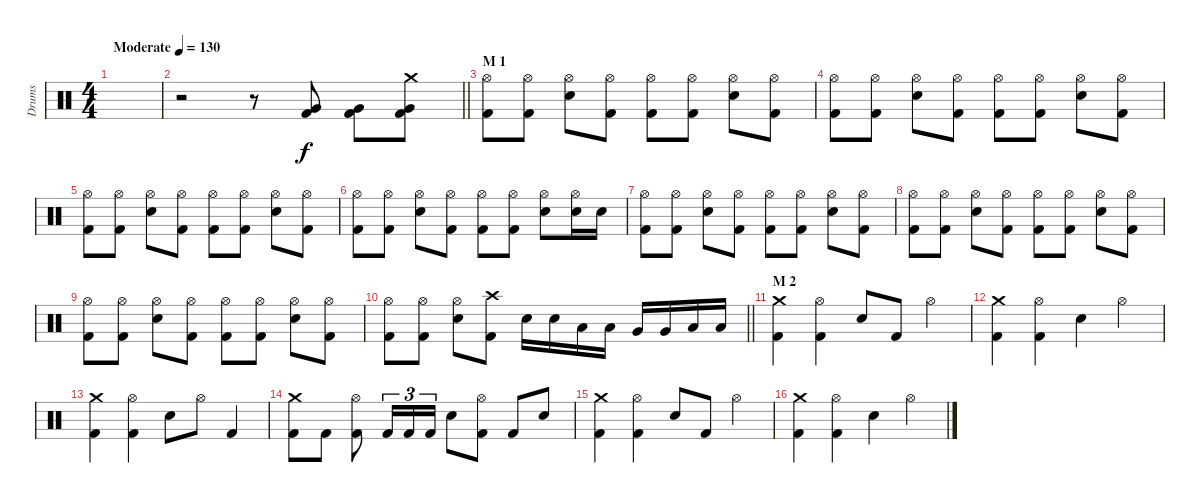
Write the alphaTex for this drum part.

\track ("Drums" "Drums") {instrument percussion}
\staff
\articulation defaults
\ts (4 4)
\tempo (130 "Moderate")
\clef neutral
\ks c
|
\barLineRight lightlight
r.2 r.8 ("Very Low Tom (hit)" "Kick (hit) 2").8 ("Very Low Tom (hit)" "Kick (hit) 2").8 ("Very Low Tom (hit)" "Crash medium (hit)" "Kick (hit) 2").8 |
\section ("" "M 1")
("Hi-Hat (open)" "Kick (hit) 2").8 ("Hi-Hat (open)" "Kick (hit) 2").8 ("Hi-Hat (open)" "Electric Snare (hit)").8 ("Hi-Hat (open)" "Kick (hit) 2").8 ("Hi-Hat (open)" "Kick (hit) 2").8 ("Hi-Hat (open)" "Kick (hit) 2").8 ("Hi-Hat (open)" "Electric Snare (hit)").8 ("Hi-Hat (open)" "Kick (hit) 2").8 |
("Hi-Hat (open)" "Kick (hit) 2").8 ("Hi-Hat (open)" "Kick (hit) 2").8 ("Hi-Hat (open)" "Electric Snare (hit)").8 ("Hi-Hat (open)" "Kick (hit) 2").8 ("Hi-Hat (open)" "Kick (hit) 2").8 ("Hi-Hat (open)" "Kick (hit) 2").8 ("Hi-Hat (open)" "Electric Snare (hit)").8 ("Hi-Hat (open)" "Kick (hit) 2").8 |
("Hi-Hat (open)" "Kick (hit) 2").8 ("Hi-Hat (open)" "Kick (hit) 2").8 ("Hi-Hat (open)" "Electric Snare (hit)").8 ("Hi-Hat (open)" "Kick (hit) 2").8 ("Hi-Hat (open)" "Kick (hit) 2").8 ("Hi-Hat (open)" "Kick (hit) 2").8 ("Hi-Hat (open)" "Electric Snare (hit)").8 ("Hi-Hat (open)" "Kick (hit) 2").8 |
("Hi-Hat (open)" "Kick (hit) 2").8 ("Hi-Hat (open)" "Kick (hit) 2").8 ("Hi-Hat (open)" "Electric Snare (hit)").8 ("Hi-Hat (open)" "Kick (hit) 2").8 ("Hi-Hat (open)" "Kick (hit) 2").8 ("Hi-Hat (open)" "Kick (hit) 2").8 ("Hi-Hat (open)" "Electric Snare (hit)").8 ("Hi-Hat (open)" "Electric Snare (hit)").16 "Electric Snare (hit)".16 |
("Hi-Hat (open)" "Kick (hit) 2").8 ("Hi-Hat (open)" "Kick (hit) 2").8 ("Hi-Hat (open)" "Electric Snare (hit)").8 ("Hi-Hat (open)" "Kick (hit) 2").8 ("Hi-Hat (open)" "Kick (hit) 2").8 ("Hi-Hat (open)" "Kick (hit) 2").8 ("Hi-Hat (open)" "Electric Snare (hit)").8 ("Hi-Hat (open)" "Kick (hit) 2").8 |
("Hi-Hat (open)" "Kick (hit) 2").8 ("Hi-Hat (open)" "Kick (hit) 2").8 ("Hi-Hat (open)" "Electric Snare (hit)").8 ("Hi-Hat (open)" "Kick (hit) 2").8 ("Hi-Hat (open)" "Kick (hit) 2").8 ("Hi-Hat (open)" "Kick (hit) 2").8 ("Hi-Hat (open)" "Electric Snare (hit)").8 ("Hi-Hat (open)" "Kick (hit) 2").8 |
("Hi-Hat (open)" "Kick (hit) 2").8 ("Hi-Hat (open)" "Kick (hit) 2").8 ("Hi-Hat (open)" "Electric Snare (hit)").8 ("Hi-Hat (open)" "Kick (hit) 2").8 ("Hi-Hat (open)" "Kick (hit) 2").8 ("Hi-Hat (open)" "Kick (hit) 2").8 ("Hi-Hat (open)" "Electric Snare (hit)").8 ("Hi-Hat (open)" "Kick (hit) 2").8 |
\barLineRight lightlight
("Hi-Hat (open)" "Kick (hit) 2").8 ("Hi-Hat (open)" "Kick (hit) 2").8 ("Hi-Hat (open)" "Electric Snare (hit)").8 ("Crash high (hit)" "Kick (hit) 2").8 "Electric Snare (hit)".16 "Electric Snare (hit)".16 "Low Tom (hit)".16 "Low Tom (hit)".16 "Very Low Tom (hit)".16 "Very Low Tom (hit)".16 "Low Floor Tom (hit)".16 "Low Floor Tom (hit)".16 |
\section ("" "M 2")
("Crash medium (hit)" "Kick (hit) 2").4 ("Hi-Hat (open)" "Kick (hit) 2").4 "Electric Snare (hit)".8 "Kick (hit) 2".8 "Hi-Hat (open)".4 |
("Crash medium (hit)" "Kick (hit) 2").4 ("Hi-Hat (open)" "Kick (hit) 2").4 "Electric Snare (hit)".4 "Hi-Hat (open)".4 |
("Crash medium (hit)" "Kick (hit) 2").4 ("Hi-Hat (open)" "Kick (hit) 2").4 "Electric Snare (hit)".8 "Hi-Hat (open)".8 "Kick (hit) 2".4 |
("Crash medium (hit)" "Kick (hit) 2").8 "Kick (hit) 2".8 ("Hi-Hat (open)" "Kick (hit) 2").8 "Kick (hit) 2".16{tu (3 2)} "Kick (hit) 2".16{tu (3 2)} "Kick (hit) 2".16{tu (3 2)} "Electric Snare (hit)".8 ("Hi-Hat (open)" "Kick (hit) 2").8 "Kick (hit) 2".8 "Electric Snare (hit)".8 |
("Crash medium (hit)" "Kick (hit) 2").4 ("Hi-Hat (open)" "Kick (hit) 2").4 "Electric Snare (hit)".8 "Kick (hit) 2".8 "Hi-Hat (open)".4 |
("Crash medium (hit)" "Kick (hit) 2").4 ("Hi-Hat (open)" "Kick (hit) 2").4 "Electric Snare (hit)".4 "Hi-Hat (open)".4
